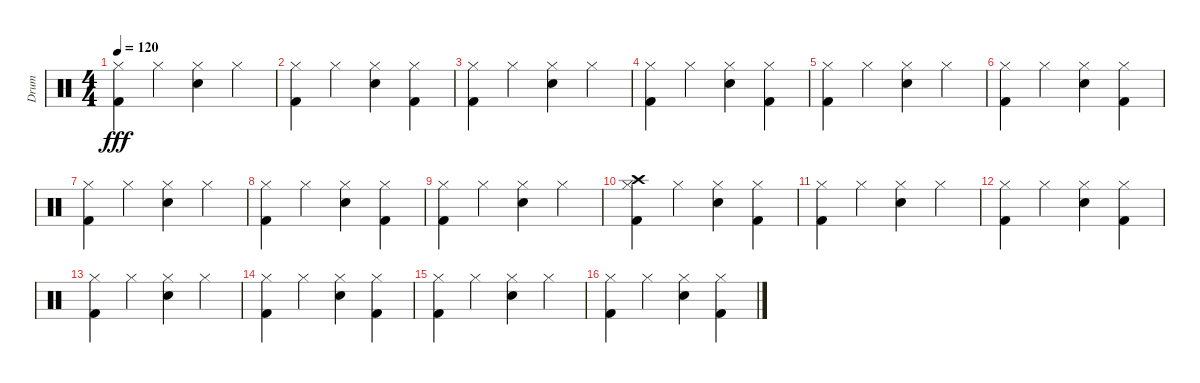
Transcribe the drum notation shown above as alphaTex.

\track ("Drum" "Drum") {instrument percussion}
\staff {score}
\articulation defaults
\ts (4 4)
\tempo 120
\clef neutral
\ks c
("Hi-Hat (closed)" "Kick (hit) 2").4{dy fff} "Hi-Hat (closed)".4 ("Hi-Hat (closed)" "Electric Snare (hit)").4 "Hi-Hat (closed)".4 |
("Hi-Hat (closed)" "Kick (hit) 2").4 "Hi-Hat (closed)".4 ("Hi-Hat (closed)" "Electric Snare (hit)").4 ("Hi-Hat (closed)" "Kick (hit) 2").4 |
("Hi-Hat (closed)" "Kick (hit) 2").4 "Hi-Hat (closed)".4 ("Hi-Hat (closed)" "Electric Snare (hit)").4 "Hi-Hat (closed)".4 |
("Hi-Hat (closed)" "Kick (hit) 2").4 "Hi-Hat (closed)".4 ("Hi-Hat (closed)" "Electric Snare (hit)").4 ("Hi-Hat (closed)" "Kick (hit) 2").4 |
("Hi-Hat (closed)" "Kick (hit) 2").4 "Hi-Hat (closed)".4 ("Hi-Hat (closed)" "Electric Snare (hit)").4 "Hi-Hat (closed)".4 |
("Hi-Hat (closed)" "Kick (hit) 2").4 "Hi-Hat (closed)".4 ("Hi-Hat (closed)" "Electric Snare (hit)").4 ("Hi-Hat (closed)" "Kick (hit) 2").4 |
("Hi-Hat (closed)" "Kick (hit) 2").4 "Hi-Hat (closed)".4 ("Hi-Hat (closed)" "Electric Snare (hit)").4 "Hi-Hat (closed)".4 |
("Hi-Hat (closed)" "Kick (hit) 2").4 "Hi-Hat (closed)".4 ("Hi-Hat (closed)" "Electric Snare (hit)").4 ("Hi-Hat (closed)" "Kick (hit) 2").4 |
("Hi-Hat (closed)" "Kick (hit) 2").4 "Hi-Hat (closed)".4 ("Hi-Hat (closed)" "Electric Snare (hit)").4 "Hi-Hat (closed)".4 |
("Crash high (hit)" "Hi-Hat (closed)" "Kick (hit) 2").4 "Hi-Hat (closed)".4 ("Hi-Hat (closed)" "Electric Snare (hit)").4 ("Hi-Hat (closed)" "Kick (hit) 2").4 |
("Hi-Hat (closed)" "Kick (hit) 2").4 "Hi-Hat (closed)".4 ("Hi-Hat (closed)" "Electric Snare (hit)").4 "Hi-Hat (closed)".4 |
("Hi-Hat (closed)" "Kick (hit) 2").4 "Hi-Hat (closed)".4 ("Hi-Hat (closed)" "Electric Snare (hit)").4 ("Hi-Hat (closed)" "Kick (hit) 2").4 |
("Hi-Hat (closed)" "Kick (hit) 2").4 "Hi-Hat (closed)".4 ("Hi-Hat (closed)" "Electric Snare (hit)").4 "Hi-Hat (closed)".4 |
("Hi-Hat (closed)" "Kick (hit) 2").4 "Hi-Hat (closed)".4 ("Hi-Hat (closed)" "Electric Snare (hit)").4 ("Hi-Hat (closed)" "Kick (hit) 2").4 |
("Hi-Hat (closed)" "Kick (hit) 2").4 "Hi-Hat (closed)".4 ("Hi-Hat (closed)" "Electric Snare (hit)").4 "Hi-Hat (closed)".4 |
("Hi-Hat (closed)" "Kick (hit) 2").4 "Hi-Hat (closed)".4 ("Hi-Hat (closed)" "Electric Snare (hit)").4 ("Hi-Hat (closed)" "Kick (hit) 2").4
